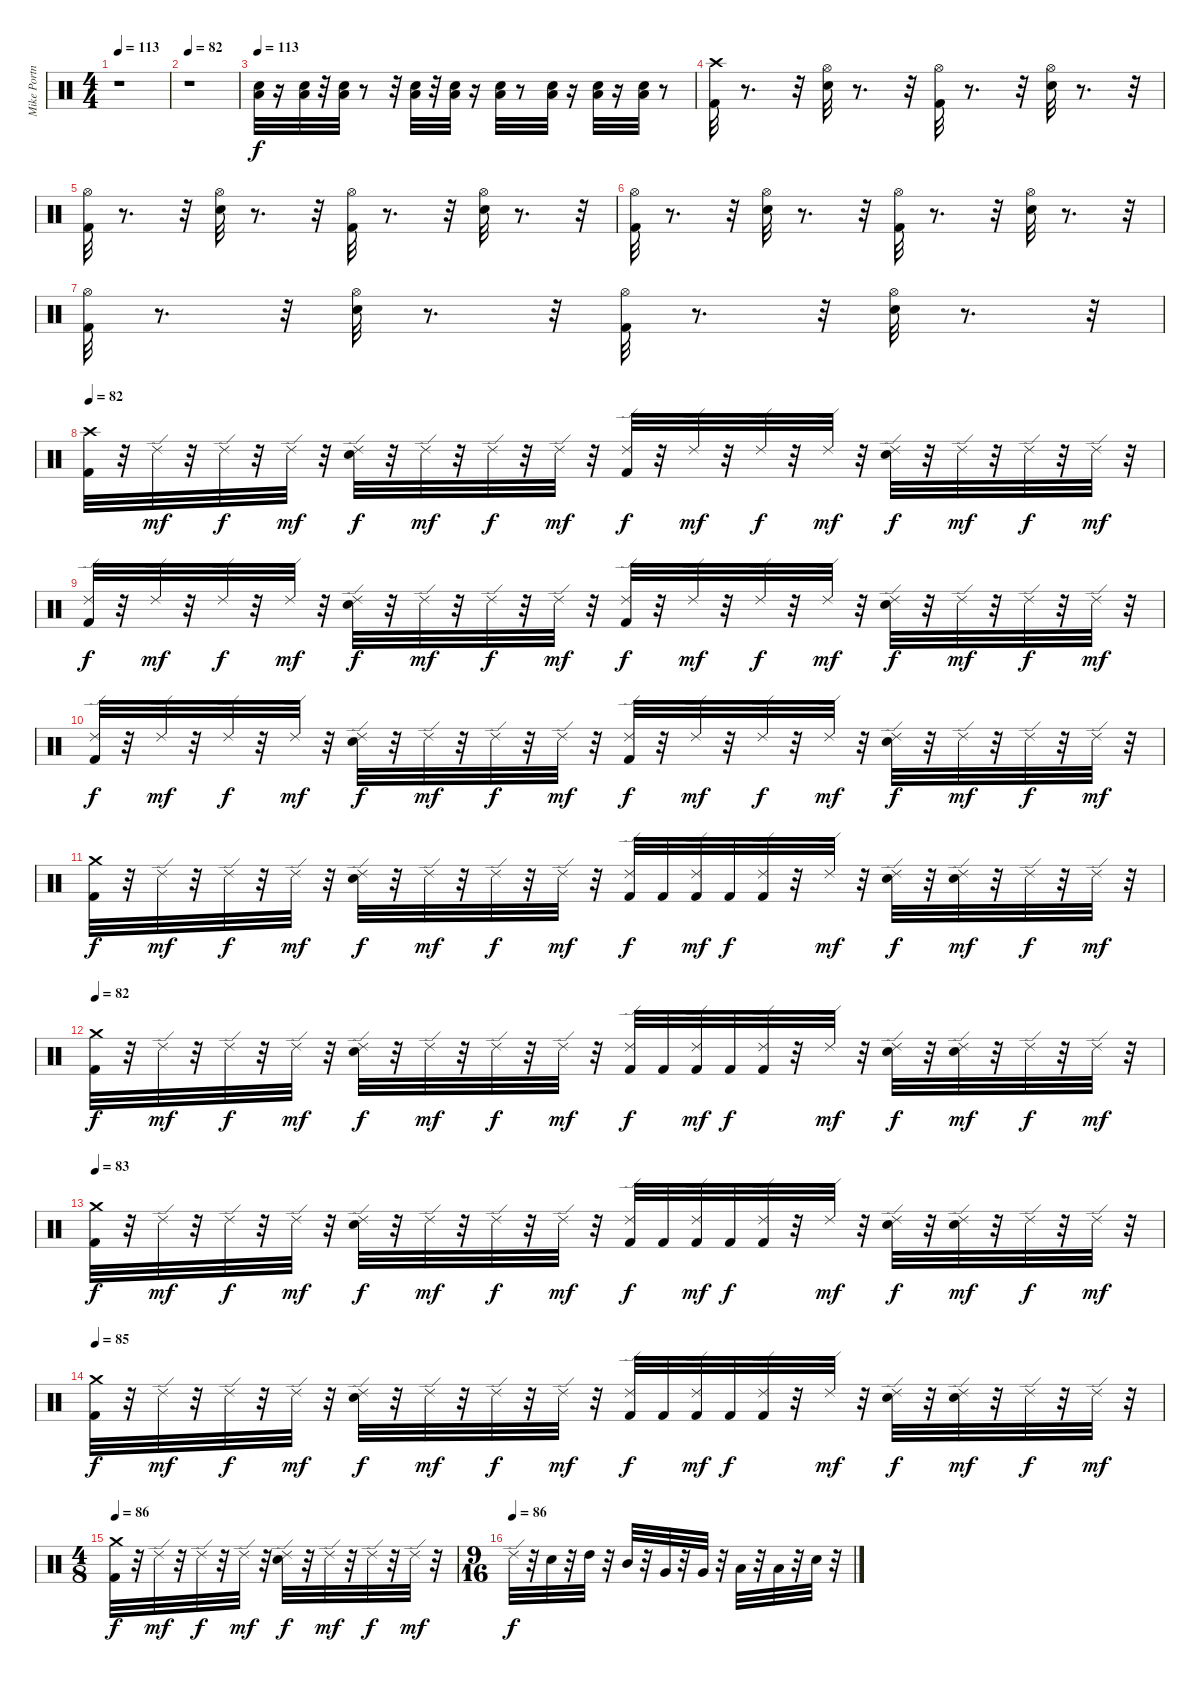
\track ("Mike Portnoy" "Mike Portn") {instrument percussion}
\staff {score}
\articulation defaults
\ts (4 4)
\tempo 113
\clef neutral
\ks c
r.1{dy f} |
\tempo 82
r.1 |
\tempo 113
("Low Floor Tom (hit)" "Snare (hit) 2").32 r.16 ("Low Floor Tom (hit)" "Snare (hit) 2").32 r.32 ("Low Floor Tom (hit)" "Snare (hit) 2").32 r.8 r.32 ("Low Floor Tom (hit)" "Snare (hit) 2").32 r.32 ("Low Floor Tom (hit)" "Snare (hit) 2").32 r.16 ("Low Floor Tom (hit)" "Snare (hit) 2").32 r.8 ("Snare (hit) 2" "Low Floor Tom (hit)").32 r.16 ("Snare (hit) 2" "Low Floor Tom (hit)").32 r.16 ("Snare (hit) 2" "Low Floor Tom (hit)").32 r.8 |
("Crash high (hit)" "Kick (hit) 2").32 r.8{d} r.32 ("Hi-Hat (open)" "Snare (hit) 2").32 r.8{d} r.32 ("Hi-Hat (open)" "Kick (hit) 2").32 r.8{d} r.32 ("Hi-Hat (open)" "Snare (hit) 2").32 r.8{d} r.32 |
("Hi-Hat (open)" "Kick (hit) 2").32 r.8{d} r.32 ("Hi-Hat (open)" "Snare (hit) 2").32 r.8{d} r.32 ("Hi-Hat (open)" "Kick (hit) 2").32 r.8{d} r.32 ("Hi-Hat (open)" "Snare (hit) 2").32 r.8{d} r.32 |
("Hi-Hat (open)" "Kick (hit) 2").32 r.8{d} r.32 ("Hi-Hat (open)" "Snare (hit) 2").32 r.8{d} r.32 ("Hi-Hat (open)" "Kick (hit) 2").32 r.8{d} r.32 ("Hi-Hat (open)" "Snare (hit) 2").32 r.8{d} r.32 |
("Hi-Hat (open)" "Kick (hit) 2").32 r.8{d} r.32 ("Hi-Hat (open)" "Snare (hit) 2").32 r.8{d} r.32 ("Hi-Hat (open)" "Kick (hit) 2").32 r.8{d} r.32 ("Hi-Hat (open)" "Snare (hit) 2").32 r.8{d} r.32 |
\tempo 82
("Crash high (hit)" "Kick (hit) 2").32 r.32 "Ride (edge) 2".32{dy mf} r.32 "Ride (edge) 2".32{dy f} r.32 "Ride (edge) 2".32{dy mf} r.32 ("Ride (edge) 2" "Snare (hit) 2").32{dy f} r.32 "Ride (edge) 2".32{dy mf} r.32 "Ride (edge) 2".32{dy f} r.32 "Ride (edge) 2".32{dy mf} r.32 ("Ride (edge) 2" "Kick (hit) 2").32{dy f} r.32 "Ride (edge) 2".32{dy mf} r.32 "Ride (edge) 2".32{dy f} r.32 "Ride (edge) 2".32{dy mf} r.32 ("Ride (edge) 2" "Snare (hit) 2").32{dy f} r.32 "Ride (edge) 2".32{dy mf} r.32 "Ride (edge) 2".32{dy f} r.32 "Ride (edge) 2".32{dy mf} r.32 |
("Ride (edge) 2" "Kick (hit) 2").32{dy f} r.32 "Ride (edge) 2".32{dy mf} r.32 "Ride (edge) 2".32{dy f} r.32 "Ride (edge) 2".32{dy mf} r.32 ("Ride (edge) 2" "Snare (hit) 2").32{dy f} r.32 "Ride (edge) 2".32{dy mf} r.32 "Ride (edge) 2".32{dy f} r.32 "Ride (edge) 2".32{dy mf} r.32 ("Ride (edge) 2" "Kick (hit) 2").32{dy f} r.32 "Ride (edge) 2".32{dy mf} r.32 "Ride (edge) 2".32{dy f} r.32 "Ride (edge) 2".32{dy mf} r.32 ("Ride (edge) 2" "Snare (hit) 2").32{dy f} r.32 "Ride (edge) 2".32{dy mf} r.32 "Ride (edge) 2".32{dy f} r.32 "Ride (edge) 2".32{dy mf} r.32 |
("Ride (edge) 2" "Kick (hit) 2").32{dy f} r.32 "Ride (edge) 2".32{dy mf} r.32 "Ride (edge) 2".32{dy f} r.32 "Ride (edge) 2".32{dy mf} r.32 ("Ride (edge) 2" "Snare (hit) 2").32{dy f} r.32 "Ride (edge) 2".32{dy mf} r.32 "Ride (edge) 2".32{dy f} r.32 "Ride (edge) 2".32{dy mf} r.32 ("Ride (edge) 2" "Kick (hit) 2").32{dy f} r.32 "Ride (edge) 2".32{dy mf} r.32 "Ride (edge) 2".32{dy f} r.32 "Ride (edge) 2".32{dy mf} r.32 ("Ride (edge) 2" "Snare (hit) 2").32{dy f} r.32 "Ride (edge) 2".32{dy mf} r.32 "Ride (edge) 2".32{dy f} r.32 "Ride (edge) 2".32{dy mf} r.32 |
("Crash medium (hit)" "Kick (hit) 2").32{dy f} r.32 "Ride (edge) 2".32{dy mf} r.32 "Ride (edge) 2".32{dy f} r.32 "Ride (edge) 2".32{dy mf} r.32 ("Ride (edge) 2" "Snare (hit) 2").32{dy f} r.32 "Ride (edge) 2".32{dy mf} r.32 "Ride (edge) 2".32{dy f} r.32 "Ride (edge) 2".32{dy mf} r.32 ("Ride (edge) 2" "Kick (hit) 2").32{dy f} "Kick (hit) 2".32 ("Kick (hit) 2" "Ride (edge) 2").32{dy mf} "Kick (hit) 2".32{dy f} ("Kick (hit) 2" "Ride (edge) 2").32 r.32 "Ride (edge) 2".32{dy mf} r.32 ("Ride (edge) 2" "Snare (hit) 2").32{dy f} r.32 ("Snare (hit) 2" "Ride (edge) 2").32{dy mf} r.32 "Ride (edge) 2".32{dy f} r.32 "Ride (edge) 2".32{dy mf} r.32 |
\tempo 82
("Crash medium (hit)" "Kick (hit) 2").32{dy f} r.32 "Ride (edge) 2".32{dy mf} r.32 "Ride (edge) 2".32{dy f} r.32 "Ride (edge) 2".32{dy mf} r.32 ("Ride (edge) 2" "Snare (hit) 2").32{dy f} r.32 "Ride (edge) 2".32{dy mf} r.32 "Ride (edge) 2".32{dy f} r.32 "Ride (edge) 2".32{dy mf} r.32 ("Ride (edge) 2" "Kick (hit) 2").32{dy f} "Kick (hit) 2".32 ("Kick (hit) 2" "Ride (edge) 2").32{dy mf} "Kick (hit) 2".32{dy f} ("Kick (hit) 2" "Ride (edge) 2").32 r.32 "Ride (edge) 2".32{dy mf} r.32 ("Ride (edge) 2" "Snare (hit) 2").32{dy f} r.32 ("Snare (hit) 2" "Ride (edge) 2").32{dy mf} r.32 "Ride (edge) 2".32{dy f} r.32 "Ride (edge) 2".32{dy mf} r.32 |
\tempo 83
("Crash medium (hit)" "Kick (hit) 2").32{dy f} r.32 "Ride (edge) 2".32{dy mf} r.32 "Ride (edge) 2".32{dy f} r.32 "Ride (edge) 2".32{dy mf} r.32 ("Ride (edge) 2" "Snare (hit) 2").32{dy f} r.32 "Ride (edge) 2".32{dy mf} r.32 "Ride (edge) 2".32{dy f} r.32 "Ride (edge) 2".32{dy mf} r.32 ("Ride (edge) 2" "Kick (hit) 2").32{dy f} "Kick (hit) 2".32 ("Kick (hit) 2" "Ride (edge) 2").32{dy mf} "Kick (hit) 2".32{dy f} ("Kick (hit) 2" "Ride (edge) 2").32 r.32 "Ride (edge) 2".32{dy mf} r.32 ("Ride (edge) 2" "Snare (hit) 2").32{dy f} r.32 ("Snare (hit) 2" "Ride (edge) 2").32{dy mf} r.32 "Ride (edge) 2".32{dy f} r.32 "Ride (edge) 2".32{dy mf} r.32 |
\tempo 85
("Crash medium (hit)" "Kick (hit) 2").32{dy f} r.32 "Ride (edge) 2".32{dy mf} r.32 "Ride (edge) 2".32{dy f} r.32 "Ride (edge) 2".32{dy mf} r.32 ("Ride (edge) 2" "Snare (hit) 2").32{dy f} r.32 "Ride (edge) 2".32{dy mf} r.32 "Ride (edge) 2".32{dy f} r.32 "Ride (edge) 2".32{dy mf} r.32 ("Ride (edge) 2" "Kick (hit) 2").32{dy f} "Kick (hit) 2".32 ("Kick (hit) 2" "Ride (edge) 2").32{dy mf} "Kick (hit) 2".32{dy f} ("Kick (hit) 2" "Ride (edge) 2").32 r.32 "Ride (edge) 2".32{dy mf} r.32 ("Ride (edge) 2" "Snare (hit) 2").32{dy f} r.32 ("Snare (hit) 2" "Ride (edge) 2").32{dy mf} r.32 "Ride (edge) 2".32{dy f} r.32 "Ride (edge) 2".32{dy mf} r.32 |
\ts (4 8)
\tempo 86
("Crash medium (hit)" "Kick (hit) 2").32{dy f} r.32 "Ride (edge) 2".32{dy mf} r.32 "Ride (edge) 2".32{dy f} r.32 "Ride (edge) 2".32{dy mf} r.32 ("Ride (edge) 2" "Snare (hit) 2").32{dy f} r.32 "Ride (edge) 2".32{dy mf} r.32 "Ride (edge) 2".32{dy f} r.32 "Ride (edge) 2".32{dy mf} r.32 |
\ts (9 16)
\tempo (86)
"Ride (edge) 2".32{dy f} r.32 "Snare (hit) 2".32 r.32 "High Tom (hit)".32 r.32 "Mid Tom (hit)".32 r.32 "Very Low Tom (hit)".32 r.32 "Very Low Tom (hit)".32 r.32 "Low Floor Tom (hit)".32 r.32 "Low Floor Tom (hit)".32 r.32 "Snare (hit) 2".32 r.32
